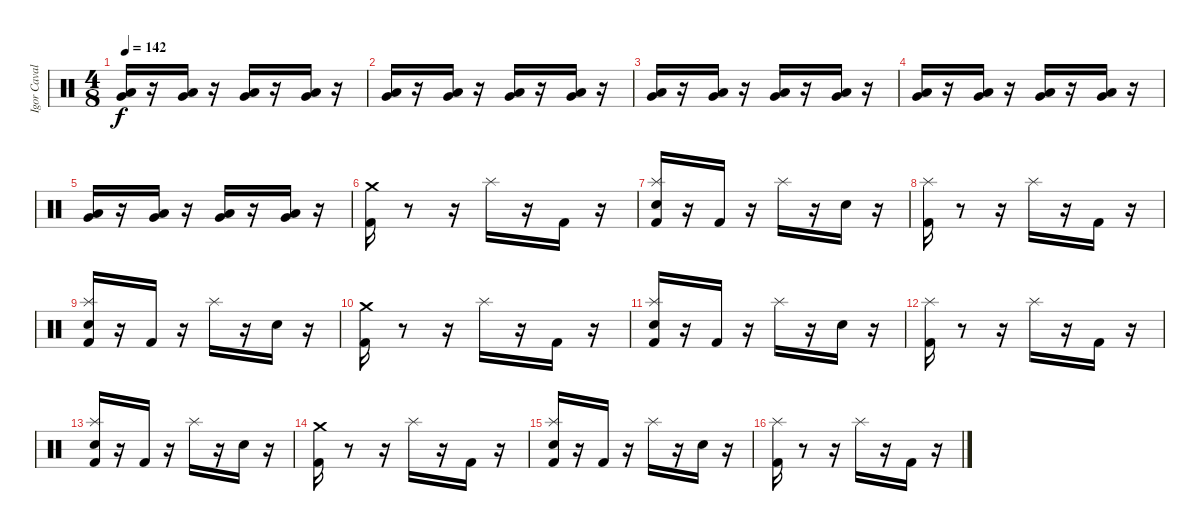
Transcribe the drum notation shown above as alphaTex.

\track ("Igor Cavalera" "Igor Caval") {instrument percussion}
\staff {score}
\articulation defaults
\ts (4 8)
\tempo 142
\clef neutral
\ks c
("Low Tom (hit)" "Very Low Tom (hit)").16{dy f} r.16 ("Very Low Tom (hit)" "Low Tom (hit)").16 r.16 ("Low Tom (hit)" "Very Low Tom (hit)").16 r.16 ("Very Low Tom (hit)" "Low Tom (hit)").16 r.16 |
("Very Low Tom (hit)" "Low Tom (hit)").16 r.16 ("Low Tom (hit)" "Very Low Tom (hit)").16 r.16 ("Low Tom (hit)" "Very Low Tom (hit)").16 r.16 ("Low Tom (hit)" "Very Low Tom (hit)").16 r.16 |
("Low Tom (hit)" "Very Low Tom (hit)").16 r.16 ("Very Low Tom (hit)" "Low Tom (hit)").16 r.16 ("Low Tom (hit)" "Very Low Tom (hit)").16 r.16 ("Very Low Tom (hit)" "Low Tom (hit)").16 r.16 |
("Very Low Tom (hit)" "Low Tom (hit)").16 r.16 ("Low Tom (hit)" "Very Low Tom (hit)").16 r.16 ("Low Tom (hit)" "Very Low Tom (hit)").16 r.16 ("Low Tom (hit)" "Very Low Tom (hit)").16 r.16 |
("Low Tom (hit)" "Very Low Tom (hit)").16 r.16 ("Very Low Tom (hit)" "Low Tom (hit)").16 r.16 ("Low Tom (hit)" "Very Low Tom (hit)").16 r.16 ("Very Low Tom (hit)" "Low Tom (hit)").16 r.16 |
("Kick (hit) 2" "Crash medium (hit)").16 r.8 r.16 "Splash (hit)".16 r.16 "Kick (hit) 2".16 r.16 |
("Electric Snare (hit)" "Kick (hit) 2" "Splash (hit)").16 r.16 "Kick (hit) 2".16 r.16 "Splash (hit)".16 r.16 "Electric Snare (hit)".16 r.16 |
("Kick (hit) 2" "Splash (hit)").16 r.8 r.16 "Splash (hit)".16 r.16 "Kick (hit) 2".16 r.16 |
("Electric Snare (hit)" "Kick (hit) 2" "Splash (hit)").16 r.16 "Kick (hit) 2".16 r.16 "Splash (hit)".16 r.16 "Electric Snare (hit)".16 r.16 |
("Kick (hit) 2" "Crash medium (hit)").16 r.8 r.16 "Splash (hit)".16 r.16 "Kick (hit) 2".16 r.16 |
("Electric Snare (hit)" "Kick (hit) 2" "Splash (hit)").16 r.16 "Kick (hit) 2".16 r.16 "Splash (hit)".16 r.16 "Electric Snare (hit)".16 r.16 |
("Kick (hit) 2" "Splash (hit)").16 r.8 r.16 "Splash (hit)".16 r.16 "Kick (hit) 2".16 r.16 |
("Electric Snare (hit)" "Kick (hit) 2" "Splash (hit)").16 r.16 "Kick (hit) 2".16 r.16 "Splash (hit)".16 r.16 "Electric Snare (hit)".16 r.16 |
("Kick (hit) 2" "Crash medium (hit)").16 r.8 r.16 "Splash (hit)".16 r.16 "Kick (hit) 2".16 r.16 |
("Electric Snare (hit)" "Kick (hit) 2" "Splash (hit)").16 r.16 "Kick (hit) 2".16 r.16 "Splash (hit)".16 r.16 "Electric Snare (hit)".16 r.16 |
("Kick (hit) 2" "Splash (hit)").16 r.8 r.16 "Splash (hit)".16 r.16 "Kick (hit) 2".16 r.16
